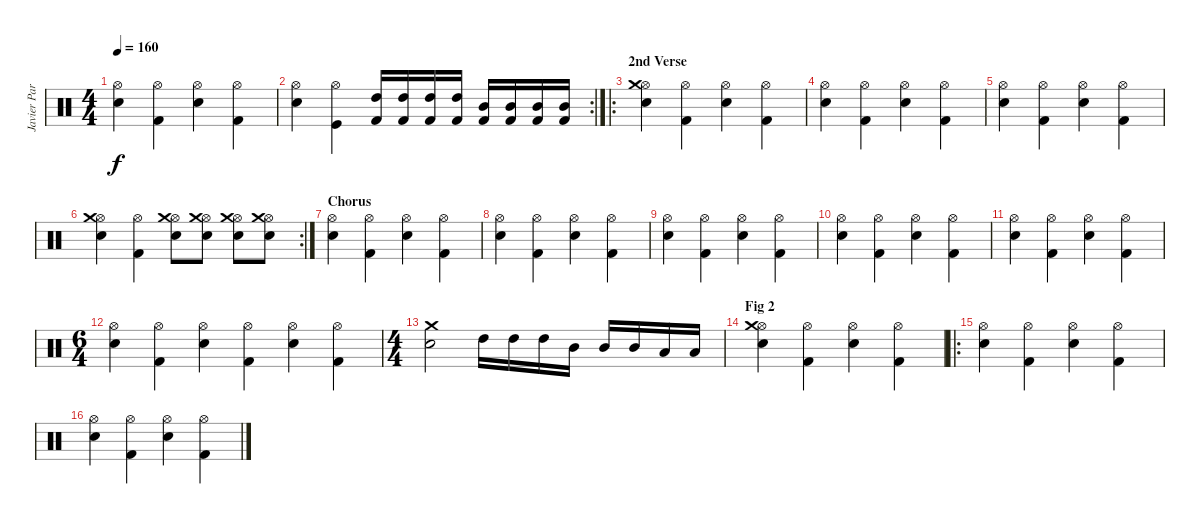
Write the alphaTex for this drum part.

\track ("Javier Partida" "Javier Par") {instrument percussion}
\staff {score}
\articulation defaults
\ts (4 4)
\tempo 160
\clef neutral
\ks c
("Hi-Hat (open)" "Snare (hit) 2").4{dy f} ("Hi-Hat (open)" "Kick (hit) 2").4 ("Hi-Hat (open)" "Snare (hit) 2").4 ("Hi-Hat (open)" "Kick (hit) 2").4 |
\rc 2
("Hi-Hat (open)" "Snare (hit) 2").4 ("Hi-Hat (open)" "Kick (hit)").4 ("Kick (hit) 2" "High Tom (hit)").16 ("Kick (hit) 2" "High Tom (hit)").16 ("Kick (hit) 2" "High Tom (hit)").16 ("Kick (hit) 2" "High Tom (hit)").16 ("Kick (hit) 2" "Mid Tom (hit)").16 ("Kick (hit) 2" "Mid Tom (hit)").16 ("Kick (hit) 2" "Mid Tom (hit)").16 ("Kick (hit) 2" "Mid Tom (hit)").16 |
\ro
\section ("" "2nd Verse")
("Hi-Hat (open)" "Snare (hit) 2" "Crash medium (hit)").4 ("Hi-Hat (open)" "Kick (hit) 2").4 ("Hi-Hat (open)" "Snare (hit) 2").4 ("Hi-Hat (open)" "Kick (hit) 2").4 |
("Hi-Hat (open)" "Snare (hit) 2").4 ("Hi-Hat (open)" "Kick (hit) 2").4 ("Hi-Hat (open)" "Snare (hit) 2").4 ("Hi-Hat (open)" "Kick (hit) 2").4 |
("Hi-Hat (open)" "Snare (hit) 2").4 ("Hi-Hat (open)" "Kick (hit) 2").4 ("Hi-Hat (open)" "Snare (hit) 2").4 ("Hi-Hat (open)" "Kick (hit) 2").4 |
\rc 2
("Hi-Hat (open)" "Snare (hit) 2" "Crash medium (hit)").4 ("Hi-Hat (open)" "Kick (hit) 2").4 ("Hi-Hat (open)" "Snare (hit) 2" "Crash medium (hit)").8 ("Hi-Hat (open)" "Snare (hit) 2" "Crash medium (hit)").8 ("Hi-Hat (open)" "Snare (hit) 2" "Crash medium (hit)").8 ("Hi-Hat (open)" "Snare (hit) 2" "Crash medium (hit)").8 |
\section ("" "Chorus")
("Hi-Hat (open)" "Snare (hit) 2").4 ("Hi-Hat (open)" "Kick (hit) 2").4 ("Hi-Hat (open)" "Snare (hit) 2").4 ("Hi-Hat (open)" "Kick (hit) 2").4 |
("Hi-Hat (open)" "Snare (hit) 2").4 ("Hi-Hat (open)" "Kick (hit) 2").4 ("Hi-Hat (open)" "Snare (hit) 2").4 ("Hi-Hat (open)" "Kick (hit) 2").4 |
("Hi-Hat (open)" "Snare (hit) 2").4 ("Hi-Hat (open)" "Kick (hit) 2").4 ("Hi-Hat (open)" "Snare (hit) 2").4 ("Hi-Hat (open)" "Kick (hit) 2").4 |
("Hi-Hat (open)" "Snare (hit) 2").4 ("Hi-Hat (open)" "Kick (hit) 2").4 ("Hi-Hat (open)" "Snare (hit) 2").4 ("Hi-Hat (open)" "Kick (hit) 2").4 |
("Hi-Hat (open)" "Snare (hit) 2").4 ("Hi-Hat (open)" "Kick (hit) 2").4 ("Hi-Hat (open)" "Snare (hit) 2").4 ("Hi-Hat (open)" "Kick (hit) 2").4 |
\ts (6 4)
("Hi-Hat (open)" "Snare (hit) 2").4 ("Hi-Hat (open)" "Kick (hit) 2").4 ("Hi-Hat (open)" "Snare (hit) 2").4 ("Hi-Hat (open)" "Kick (hit) 2").4 ("Hi-Hat (open)" "Snare (hit) 2").4 ("Hi-Hat (open)" "Kick (hit) 2").4 |
\ts (4 4)
("Crash medium (hit)" "Snare (hit) 2").2 "High Tom (hit)".16 "High Tom (hit)".16 "High Tom (hit)".16 "Mid Tom (hit)".16 "Mid Tom (hit)".16 "Mid Tom (hit)".16 "Low Tom (hit)".16 "Low Tom (hit)".16 |
\section ("" "Fig 2")
("Hi-Hat (open)" "Snare (hit) 2" "Crash medium (hit)").4 ("Hi-Hat (open)" "Kick (hit) 2").4 ("Hi-Hat (open)" "Snare (hit) 2").4 ("Hi-Hat (open)" "Kick (hit) 2").4 |
\ro
("Hi-Hat (open)" "Snare (hit) 2").4 ("Hi-Hat (open)" "Kick (hit) 2").4 ("Hi-Hat (open)" "Snare (hit) 2").4 ("Hi-Hat (open)" "Kick (hit) 2").4 |
("Hi-Hat (open)" "Snare (hit) 2").4 ("Hi-Hat (open)" "Kick (hit) 2").4 ("Hi-Hat (open)" "Snare (hit) 2").4 ("Hi-Hat (open)" "Kick (hit) 2").4
